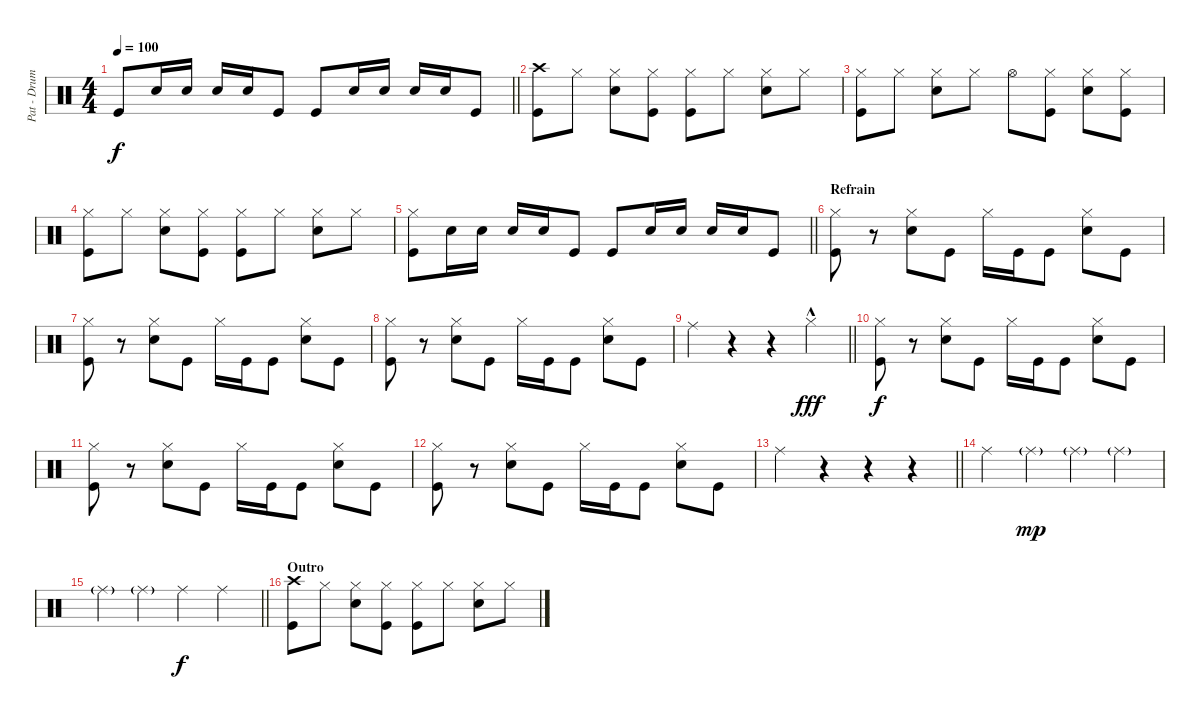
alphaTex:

\track ("Pat - Drums" "Pat - Drum") {instrument percussion}
\staff {score}
\articulation defaults
\ts (4 4)
\tempo 100
\clef neutral
\barLineRight lightlight
\ks c "Kick (hit)".8{dy f} "Electric Snare (hit)".16 "Electric Snare (hit)".16 "Electric Snare (hit)".16 "Electric Snare (hit)".16 "Kick (hit)".8 "Kick (hit)".8 "Electric Snare (hit)".16 "Electric Snare (hit)".16 "Electric Snare (hit)".16 "Electric Snare (hit)".16 "Kick (hit)".8
|
("Crash high (hit)" "Kick (hit)").8 "Hi-Hat (closed)".8 ("Hi-Hat (closed)" "Electric Snare (hit)").8 ("Hi-Hat (closed)" "Kick (hit)").8 ("Hi-Hat (closed)" "Kick (hit)").8 "Hi-Hat (closed)".8 ("Hi-Hat (closed)" "Electric Snare (hit)").8 "Hi-Hat (closed)".8 |
("Hi-Hat (closed)" "Kick (hit)").8 "Hi-Hat (closed)".8 ("Hi-Hat (closed)" "Electric Snare (hit)").8 "Hi-Hat (closed)".8 "Hi-Hat (open)".8 ("Hi-Hat (closed)" "Kick (hit)").8 ("Hi-Hat (closed)" "Electric Snare (hit)").8 ("Hi-Hat (closed)" "Kick (hit)").8 |
("Hi-Hat (closed)" "Kick (hit)").8 "Hi-Hat (closed)".8 ("Hi-Hat (closed)" "Electric Snare (hit)").8 ("Hi-Hat (closed)" "Kick (hit)").8 ("Hi-Hat (closed)" "Kick (hit)").8 "Hi-Hat (closed)".8 ("Hi-Hat (closed)" "Electric Snare (hit)").8 "Hi-Hat (closed)".8 |
\barLineRight lightlight
("Hi-Hat (closed)" "Kick (hit)").8 "Electric Snare (hit)".16 "Electric Snare (hit)".16 "Electric Snare (hit)".16 "Electric Snare (hit)".16 "Kick (hit)".8 "Kick (hit)".8 "Electric Snare (hit)".16 "Electric Snare (hit)".16 "Electric Snare (hit)".16 "Electric Snare (hit)".16 "Kick (hit)".8 |
\section ("" "Refrain")
("Hi-Hat (closed)" "Kick (hit)").8 r.8 ("Hi-Hat (closed)" "Electric Snare (hit)").8 "Kick (hit)".8 "Hi-Hat (closed)".16 "Kick (hit)".16 "Kick (hit)".8 ("Hi-Hat (closed)" "Electric Snare (hit)").8 "Kick (hit)".8 |
("Hi-Hat (closed)" "Kick (hit)").8 r.8 ("Hi-Hat (closed)" "Electric Snare (hit)").8 "Kick (hit)".8 "Hi-Hat (closed)".16 "Kick (hit)".16 "Kick (hit)".8 ("Hi-Hat (closed)" "Electric Snare (hit)").8 "Kick (hit)".8 |
("Hi-Hat (closed)" "Kick (hit)").8 r.8 ("Hi-Hat (closed)" "Electric Snare (hit)").8 "Kick (hit)".8 "Hi-Hat (closed)".16 "Kick (hit)".16 "Kick (hit)".8 ("Hi-Hat (closed)" "Electric Snare (hit)").8 "Kick (hit)".8 |
\barLineRight lightlight "Ride (middle)".4
r.4 r.4 "Hi-Hat (closed)"{hac}.4{dy fff} |
("Hi-Hat (closed)" "Kick (hit)").8{dy f} r.8 ("Hi-Hat (closed)" "Electric Snare (hit)").8 "Kick (hit)".8 "Hi-Hat (closed)".16 "Kick (hit)".16 "Kick (hit)".8 ("Hi-Hat (closed)" "Electric Snare (hit)").8 "Kick (hit)".8 |
("Hi-Hat (closed)" "Kick (hit)").8 r.8 ("Hi-Hat (closed)" "Electric Snare (hit)").8 "Kick (hit)".8 "Hi-Hat (closed)".16 "Kick (hit)".16 "Kick (hit)".8 ("Hi-Hat (closed)" "Electric Snare (hit)").8 "Kick (hit)".8 |
("Hi-Hat (closed)" "Kick (hit)").8 r.8 ("Hi-Hat (closed)" "Electric Snare (hit)").8 "Kick (hit)".8 "Hi-Hat (closed)".16 "Kick (hit)".16 "Kick (hit)".8 ("Hi-Hat (closed)" "Electric Snare (hit)").8 "Kick (hit)".8 |
\barLineRight lightlight "Ride (middle)".4
r.4 r.4 r.4 |
"Ride (middle)".4 "Ride (middle)"{g}.4{dy mp} "Ride (middle)"{g}.4 "Ride (middle)"{g}.4 |
\barLineRight lightlight "Ride (middle)"{g}.4 "Ride (middle)"{g}.4 "Ride (middle)".4{dy f} "Ride (middle)".4
|
\section ("" "Outro")
("Crash high (hit)" "Kick (hit)").8 "Hi-Hat (closed)".8 ("Hi-Hat (closed)" "Electric Snare (hit)").8 ("Hi-Hat (closed)" "Kick (hit)").8 ("Hi-Hat (closed)" "Kick (hit)").8 "Hi-Hat (closed)".8 ("Hi-Hat (closed)" "Electric Snare (hit)").8 "Hi-Hat (closed)".8
